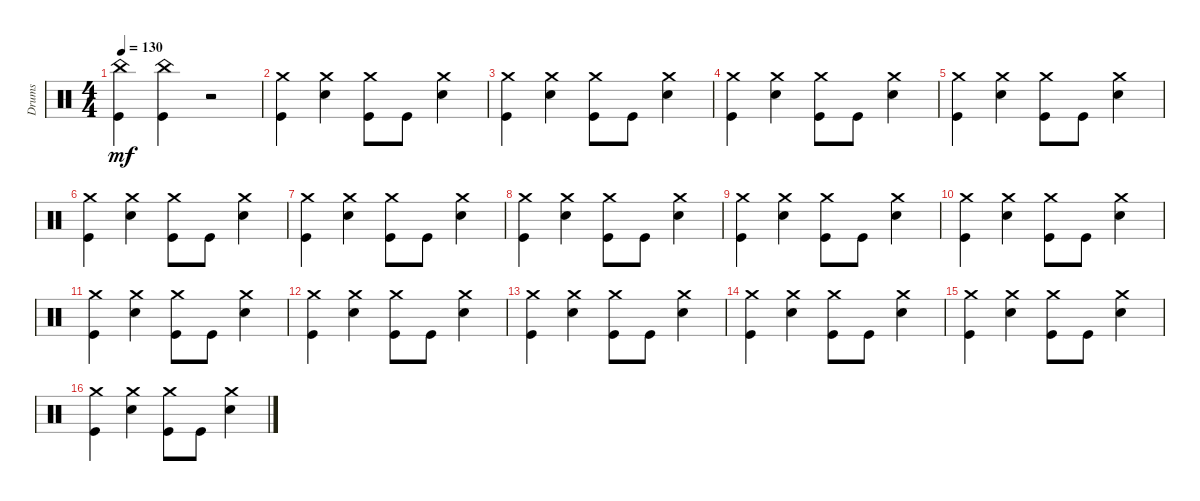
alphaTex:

\defaultSystemsLayout 4
\track ("Drumkit" "Drums") {instrument percussion}
\staff {score}
\articulation defaults
\ts (4 4)
\tempo 130
\clef neutral
\ks c
("Kick (hit)" "China (hit)").4{dy mf} ("Kick (hit)" "China (hit)").4 r.2 |
("Kick (hit)" "Crash medium (hit)").4 ("Snare (hit) 2" "Crash medium (hit)").4 ("Kick (hit)" "Crash medium (hit)").8 "Kick (hit)".8 ("Snare (hit) 2" "Crash medium (hit)").4 |
("Kick (hit)" "Crash medium (hit)").4 ("Snare (hit) 2" "Crash medium (hit)").4 ("Kick (hit)" "Crash medium (hit)").8 "Kick (hit)".8 ("Snare (hit) 2" "Crash medium (hit)").4 |
("Kick (hit)" "Crash medium (hit)").4 ("Snare (hit) 2" "Crash medium (hit)").4 ("Kick (hit)" "Crash medium (hit)").8 "Kick (hit)".8 ("Snare (hit) 2" "Crash medium (hit)").4 |
("Kick (hit)" "Crash medium (hit)").4 ("Snare (hit) 2" "Crash medium (hit)").4 ("Kick (hit)" "Crash medium (hit)").8 "Kick (hit)".8 ("Snare (hit) 2" "Crash medium (hit)").4 |
("Kick (hit)" "Crash medium (hit)").4 ("Snare (hit) 2" "Crash medium (hit)").4 ("Kick (hit)" "Crash medium (hit)").8 "Kick (hit)".8 ("Snare (hit) 2" "Crash medium (hit)").4 |
("Kick (hit)" "Crash medium (hit)").4 ("Snare (hit) 2" "Crash medium (hit)").4 ("Kick (hit)" "Crash medium (hit)").8 "Kick (hit)".8 ("Snare (hit) 2" "Crash medium (hit)").4 |
("Kick (hit)" "Crash medium (hit)").4 ("Snare (hit) 2" "Crash medium (hit)").4 ("Kick (hit)" "Crash medium (hit)").8 "Kick (hit)".8 ("Snare (hit) 2" "Crash medium (hit)").4 |
("Kick (hit)" "Crash medium (hit)").4 ("Snare (hit) 2" "Crash medium (hit)").4 ("Kick (hit)" "Crash medium (hit)").8 "Kick (hit)".8 ("Snare (hit) 2" "Crash medium (hit)").4 |
("Kick (hit)" "Crash medium (hit)").4 ("Snare (hit) 2" "Crash medium (hit)").4 ("Kick (hit)" "Crash medium (hit)").8 "Kick (hit)".8 ("Snare (hit) 2" "Crash medium (hit)").4 |
("Kick (hit)" "Crash medium (hit)").4 ("Snare (hit) 2" "Crash medium (hit)").4 ("Kick (hit)" "Crash medium (hit)").8 "Kick (hit)".8 ("Snare (hit) 2" "Crash medium (hit)").4 |
("Kick (hit)" "Crash medium (hit)").4 ("Snare (hit) 2" "Crash medium (hit)").4 ("Kick (hit)" "Crash medium (hit)").8 "Kick (hit)".8 ("Snare (hit) 2" "Crash medium (hit)").4 |
("Kick (hit)" "Crash medium (hit)").4 ("Snare (hit) 2" "Crash medium (hit)").4 ("Kick (hit)" "Crash medium (hit)").8 "Kick (hit)".8 ("Snare (hit) 2" "Crash medium (hit)").4 |
("Kick (hit)" "Crash medium (hit)").4 ("Snare (hit) 2" "Crash medium (hit)").4 ("Kick (hit)" "Crash medium (hit)").8 "Kick (hit)".8 ("Snare (hit) 2" "Crash medium (hit)").4 |
("Kick (hit)" "Crash medium (hit)").4 ("Snare (hit) 2" "Crash medium (hit)").4 ("Kick (hit)" "Crash medium (hit)").8 "Kick (hit)".8 ("Snare (hit) 2" "Crash medium (hit)").4 |
("Kick (hit)" "Crash medium (hit)").4 ("Snare (hit) 2" "Crash medium (hit)").4 ("Kick (hit)" "Crash medium (hit)").8 "Kick (hit)".8 ("Snare (hit) 2" "Crash medium (hit)").4
